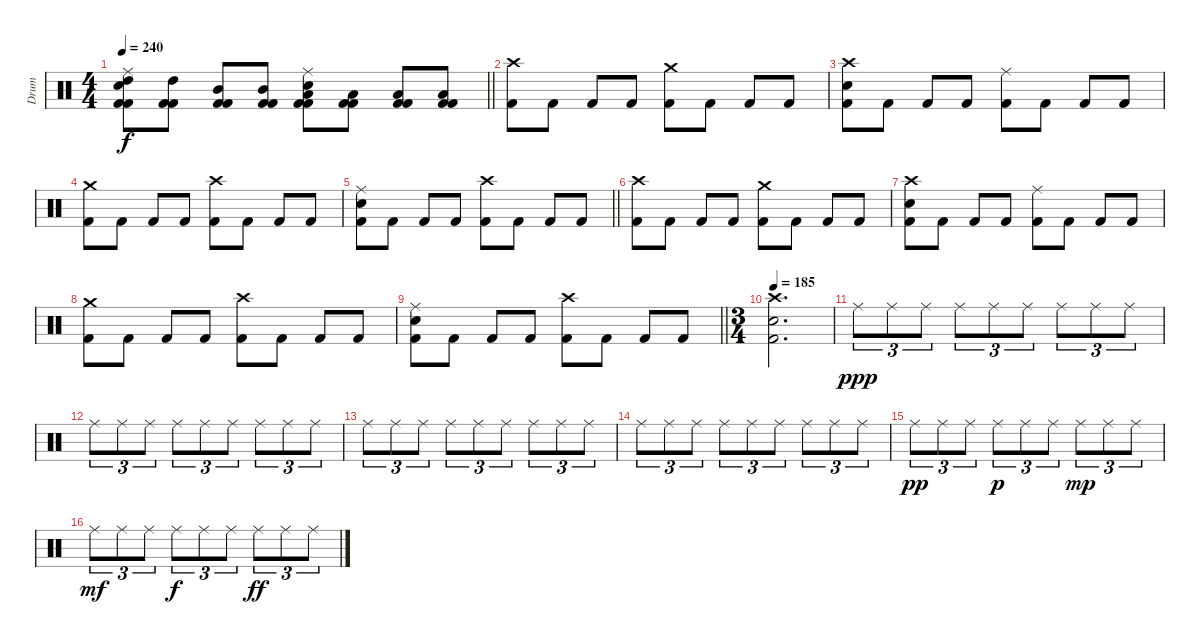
\track ("Drum" "Drum") {instrument percussion}
\staff {score}
\articulation defaults
\ts (4 4)
\tempo 240
\clef neutral
\barLineRight lightlight
\ks c
("Ride (middle)" "Electric Snare (hit)" "High Tom (hit)" "Kick (hit) 2" "Kick (hit) 2").8{dy f} ("High Tom (hit)" "Kick (hit) 2" "Kick (hit) 2").8 ("Mid Tom (hit)" "Kick (hit) 2" "Kick (hit) 2").8 ("Mid Tom (hit)" "Kick (hit) 2" "Kick (hit) 2").8 ("Ride (middle)" "Electric Snare (hit)" "Low Tom (hit)" "Kick (hit) 2" "Kick (hit) 2").8 ("Low Tom (hit)" "Kick (hit) 2" "Kick (hit) 2").8 ("Low Floor Tom (hit)" "Kick (hit) 2" "Kick (hit) 2").8 ("Low Floor Tom (hit)" "Kick (hit) 2" "Kick (hit) 2").8 |
("Crash high (hit)" "Kick (hit) 2").8 "Kick (hit) 2".8 "Kick (hit) 2".8 "Kick (hit) 2".8 ("Crash medium (hit)" "Kick (hit) 2").8 "Kick (hit) 2".8 "Kick (hit) 2".8 "Kick (hit) 2".8 |
("Crash high (hit)" "Electric Snare (hit)" "Kick (hit) 2").8 "Kick (hit) 2".8 "Kick (hit) 2".8 "Kick (hit) 2".8 ("Ride (middle)" "Kick (hit) 2").8 "Kick (hit) 2".8 "Kick (hit) 2".8 "Kick (hit) 2".8 |
("Crash medium (hit)" "Kick (hit) 2").8 "Kick (hit) 2".8 "Kick (hit) 2".8 "Kick (hit) 2".8 ("Crash high (hit)" "Kick (hit) 2").8 "Kick (hit) 2".8 "Kick (hit) 2".8 "Kick (hit) 2".8 |
\barLineRight lightlight
("Ride (middle)" "Electric Snare (hit)" "Kick (hit) 2").8 "Kick (hit) 2".8 "Kick (hit) 2".8 "Kick (hit) 2".8 ("Crash high (hit)" "Kick (hit) 2").8 "Kick (hit) 2".8 "Kick (hit) 2".8 "Kick (hit) 2".8 |
("Crash high (hit)" "Kick (hit) 2").8 "Kick (hit) 2".8 "Kick (hit) 2".8 "Kick (hit) 2".8 ("Crash medium (hit)" "Kick (hit) 2").8 "Kick (hit) 2".8 "Kick (hit) 2".8 "Kick (hit) 2".8 |
("Crash high (hit)" "Electric Snare (hit)" "Kick (hit) 2").8 "Kick (hit) 2".8 "Kick (hit) 2".8 "Kick (hit) 2".8 ("Ride (middle)" "Kick (hit) 2").8 "Kick (hit) 2".8 "Kick (hit) 2".8 "Kick (hit) 2".8 |
("Crash medium (hit)" "Kick (hit) 2").8 "Kick (hit) 2".8 "Kick (hit) 2".8 "Kick (hit) 2".8 ("Crash high (hit)" "Kick (hit) 2").8 "Kick (hit) 2".8 "Kick (hit) 2".8 "Kick (hit) 2".8 |
\barLineRight lightlight
("Ride (middle)" "Electric Snare (hit)" "Kick (hit) 2").8 "Kick (hit) 2".8 "Kick (hit) 2".8 "Kick (hit) 2".8 ("Crash high (hit)" "Kick (hit) 2").8 "Kick (hit) 2".8 "Kick (hit) 2".8 "Kick (hit) 2".8 |
\ts (3 4)
\tempo 185
("Crash high (hit)" "Electric Snare (hit)" "Kick (hit) 2").2{d} |
"Ride (middle)".8{tu (3 2) dy ppp} "Ride (middle)".8{tu (3 2)} "Ride (middle)".8{tu (3 2)} "Ride (middle)".8{tu (3 2)} "Ride (middle)".8{tu (3 2)} "Ride (middle)".8{tu (3 2)} "Ride (middle)".8{tu (3 2)} "Ride (middle)".8{tu (3 2)} "Ride (middle)".8{tu (3 2)} |
"Ride (middle)".8{tu (3 2)} "Ride (middle)".8{tu (3 2)} "Ride (middle)".8{tu (3 2)} "Ride (middle)".8{tu (3 2)} "Ride (middle)".8{tu (3 2)} "Ride (middle)".8{tu (3 2)} "Ride (middle)".8{tu (3 2)} "Ride (middle)".8{tu (3 2)} "Ride (middle)".8{tu (3 2)} |
"Ride (middle)".8{tu (3 2)} "Ride (middle)".8{tu (3 2)} "Ride (middle)".8{tu (3 2)} "Ride (middle)".8{tu (3 2)} "Ride (middle)".8{tu (3 2)} "Ride (middle)".8{tu (3 2)} "Ride (middle)".8{tu (3 2)} "Ride (middle)".8{tu (3 2)} "Ride (middle)".8{tu (3 2)} |
"Ride (middle)".8{tu (3 2)} "Ride (middle)".8{tu (3 2)} "Ride (middle)".8{tu (3 2)} "Ride (middle)".8{tu (3 2)} "Ride (middle)".8{tu (3 2)} "Ride (middle)".8{tu (3 2)} "Ride (middle)".8{tu (3 2)} "Ride (middle)".8{tu (3 2)} "Ride (middle)".8{tu (3 2)} |
"Ride (middle)".8{tu (3 2) dy pp} "Ride (middle)".8{tu (3 2)} "Ride (middle)".8{tu (3 2)} "Ride (middle)".8{tu (3 2) dy p} "Ride (middle)".8{tu (3 2)} "Ride (middle)".8{tu (3 2)} "Ride (middle)".8{tu (3 2) dy mp} "Ride (middle)".8{tu (3 2)} "Ride (middle)".8{tu (3 2)} |
"Ride (middle)".8{tu (3 2) dy mf} "Ride (middle)".8{tu (3 2)} "Ride (middle)".8{tu (3 2)} "Ride (middle)".8{tu (3 2) dy f} "Ride (middle)".8{tu (3 2)} "Ride (middle)".8{tu (3 2)} "Ride (middle)".8{tu (3 2) dy ff} "Ride (middle)".8{tu (3 2)} "Ride (middle)".8{tu (3 2)}
